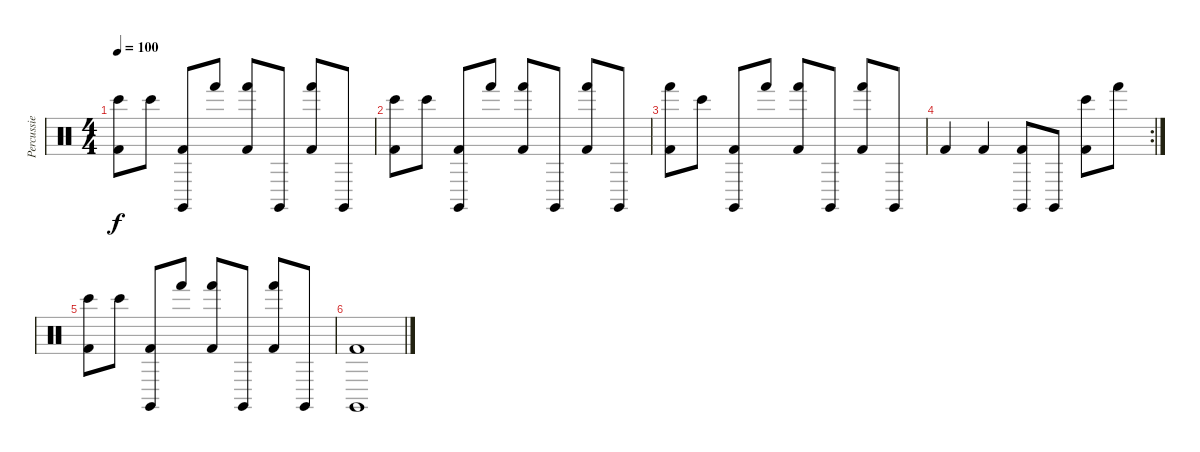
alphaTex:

\track ("Percussie" "Percussie") {instrument percussion}
\staff {score}
\articulation defaults
\ts (4 4)
\tempo 100
\clef neutral
\ks c
("Bongo High (hit)"{x} "Kick (hit) 2").8{dy f} "Bongo High (hit)".8 ("Claves (hit)" "Kick (hit) 2").8 "Hand (hit)".8 ("Hand (hit)" "Kick (hit) 2").8 "Claves (hit)".8 ("Hand (hit)"{x} "Kick (hit) 2").8 "Claves (hit)".8 |
("Bongo High (hit)" "Kick (hit) 2").8 "Bongo High (hit)".8 ("Claves (hit)" "Kick (hit) 2").8 "Hand (hit)".8 ("Hand (hit)" "Kick (hit) 2").8 "Claves (hit)".8 ("Hand (hit)"{x} "Kick (hit) 2").8 "Claves (hit)".8 |
("Hand (hit)" "Kick (hit) 2").8 "Bongo High (hit)".8 ("Claves (hit)" "Kick (hit) 2").8 "Hand (hit)".8 ("Hand (hit)" "Kick (hit) 2").8 "Claves (hit)".8 ("Hand (hit)"{x} "Kick (hit) 2").8 "Claves (hit)".8 |
\rc 2 "Kick (hit) 2".4 "Kick (hit) 2".4
("Claves (hit)" "Kick (hit) 2"{x}).8 "Claves (hit)".8 ("Bongo High (hit)" "Kick (hit) 2"{x}).8 "Hand (hit)".8 |
("Bongo High (hit)"{x} "Kick (hit) 2").8 "Bongo High (hit)".8 ("Claves (hit)" "Kick (hit) 2").8 "Hand (hit)".8 ("Hand (hit)" "Kick (hit) 2").8 "Claves (hit)".8 ("Hand (hit)"{x} "Kick (hit) 2").8 "Claves (hit)".8 |
("Claves (hit)" "Kick (hit) 2").1
